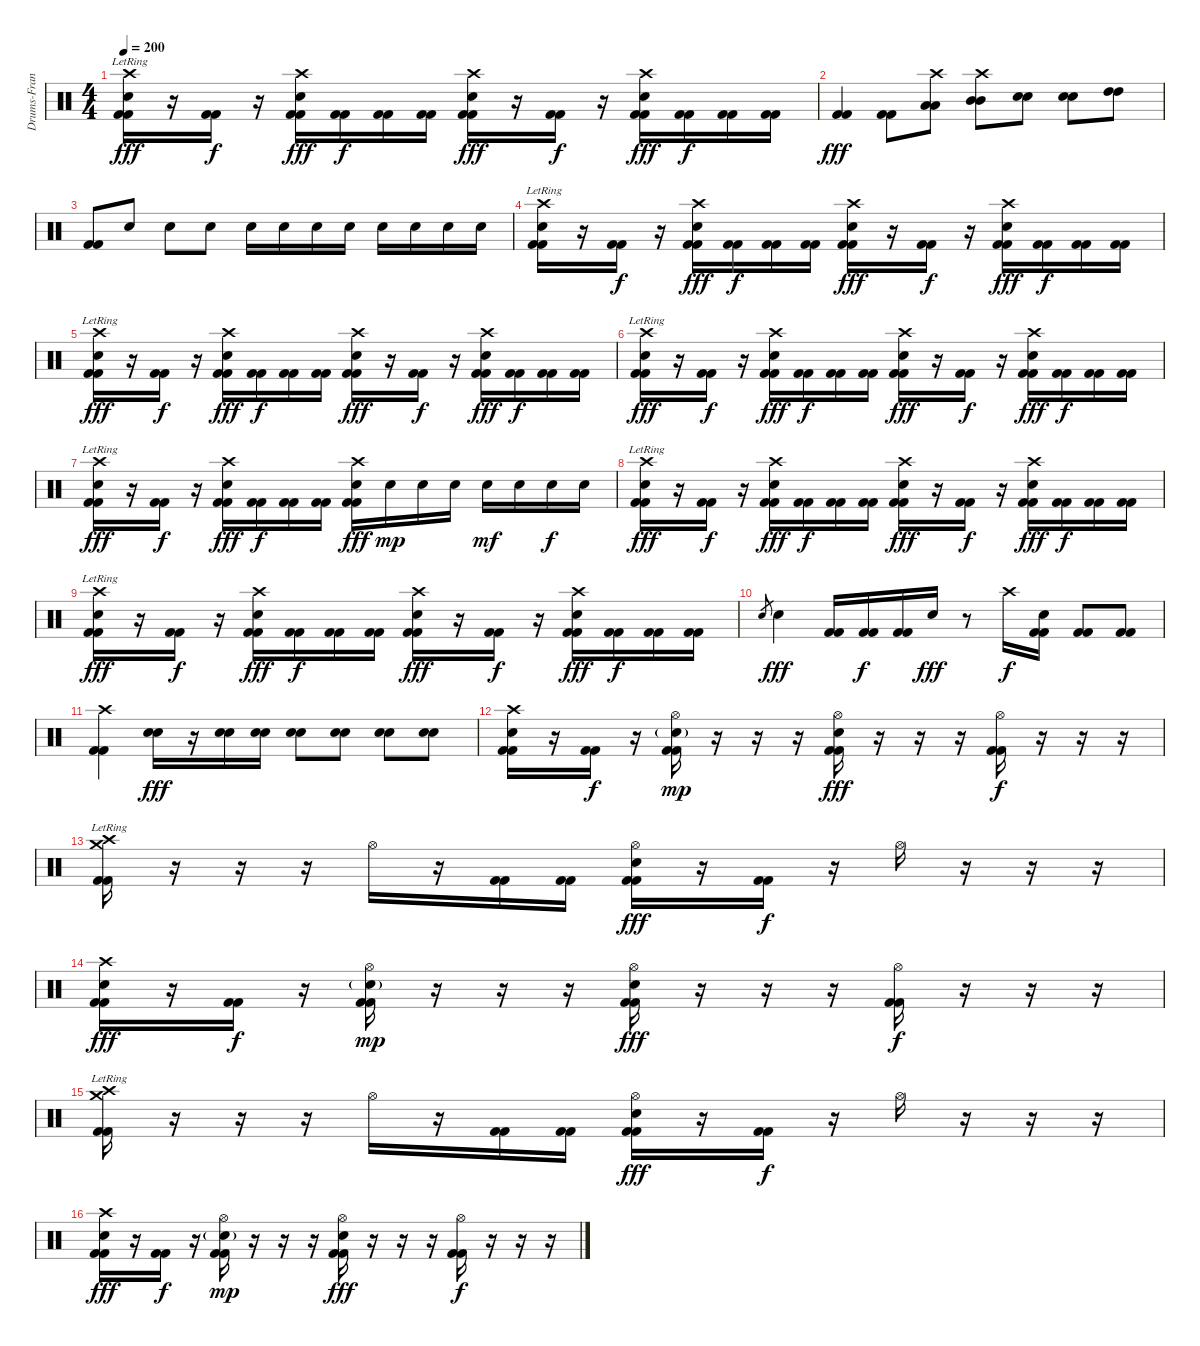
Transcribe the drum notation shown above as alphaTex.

\track ("Drums-Francis Mark" "Drums-Fran") {instrument percussion}
\staff {score}
\articulation defaults
\ts (4 4)
\tempo 200
\clef neutral
\ks c
("Crash high (hit)"{lr} "Electric Snare (hit)" "Kick (hit) 2" "Kick (hit) 2").16{dy fff} r.16 ("Kick (hit) 2" "Kick (hit) 2").16{dy f} r.16 ("Crash high (hit)" "Electric Snare (hit)" "Kick (hit) 2" "Kick (hit) 2").16{dy fff} ("Kick (hit) 2" "Kick (hit) 2").16{dy f} ("Kick (hit) 2" "Kick (hit) 2").16 ("Kick (hit) 2" "Kick (hit) 2").16 ("Crash high (hit)" "Electric Snare (hit)" "Kick (hit) 2" "Kick (hit) 2").16{dy fff} r.16 ("Kick (hit) 2" "Kick (hit) 2").16{dy f} r.16 ("Crash high (hit)" "Electric Snare (hit)" "Kick (hit) 2" "Kick (hit) 2").16{dy fff} ("Kick (hit) 2" "Kick (hit) 2").16{dy f} ("Kick (hit) 2" "Kick (hit) 2").16 ("Kick (hit) 2" "Kick (hit) 2").16 |
("Kick (hit) 2" "Kick (hit) 2").4{dy fff} ("Kick (hit) 2" "Kick (hit) 2").8 ("Crash high (hit)" "Low Tom (hit)" "Low Tom (hit)").8 ("Crash high (hit)" "Mid Tom (hit)" "Mid Tom (hit)").8 ("Electric Snare (hit)" "Electric Snare (hit)").8 ("Electric Snare (hit)" "Electric Snare (hit)").8 ("High Tom (hit)" "High Tom (hit)").8 |
("Kick (hit) 2" "Kick (hit) 2").8 "Electric Snare (hit)".8 "Electric Snare (hit)".8 "Electric Snare (hit)".8 "Electric Snare (hit)".16 "Electric Snare (hit)".16 "Electric Snare (hit)".16 "Electric Snare (hit)".16 "Electric Snare (hit)".16 "Electric Snare (hit)".16 "Electric Snare (hit)".16 "Electric Snare (hit)".16 |
("Crash high (hit)"{lr} "Electric Snare (hit)" "Kick (hit) 2" "Kick (hit) 2").16 r.16 ("Kick (hit) 2" "Kick (hit) 2").16{dy f} r.16 ("Crash high (hit)" "Electric Snare (hit)" "Kick (hit) 2" "Kick (hit) 2").16{dy fff} ("Kick (hit) 2" "Kick (hit) 2").16{dy f} ("Kick (hit) 2" "Kick (hit) 2").16 ("Kick (hit) 2" "Kick (hit) 2").16 ("Crash high (hit)" "Electric Snare (hit)" "Kick (hit) 2" "Kick (hit) 2").16{dy fff} r.16 ("Kick (hit) 2" "Kick (hit) 2").16{dy f} r.16 ("Crash high (hit)" "Electric Snare (hit)" "Kick (hit) 2" "Kick (hit) 2").16{dy fff} ("Kick (hit) 2" "Kick (hit) 2").16{dy f} ("Kick (hit) 2" "Kick (hit) 2").16 ("Kick (hit) 2" "Kick (hit) 2").16 |
("Crash high (hit)"{lr} "Electric Snare (hit)" "Kick (hit) 2" "Kick (hit) 2").16{dy fff} r.16 ("Kick (hit) 2" "Kick (hit) 2").16{dy f} r.16 ("Crash high (hit)" "Electric Snare (hit)" "Kick (hit) 2" "Kick (hit) 2").16{dy fff} ("Kick (hit) 2" "Kick (hit) 2").16{dy f} ("Kick (hit) 2" "Kick (hit) 2").16 ("Kick (hit) 2" "Kick (hit) 2").16 ("Crash high (hit)" "Electric Snare (hit)" "Kick (hit) 2" "Kick (hit) 2").16{dy fff} r.16 ("Kick (hit) 2" "Kick (hit) 2").16{dy f} r.16 ("Crash high (hit)" "Electric Snare (hit)" "Kick (hit) 2" "Kick (hit) 2").16{dy fff} ("Kick (hit) 2" "Kick (hit) 2").16{dy f} ("Kick (hit) 2" "Kick (hit) 2").16 ("Kick (hit) 2" "Kick (hit) 2").16 |
("Crash high (hit)"{lr} "Electric Snare (hit)" "Kick (hit) 2" "Kick (hit) 2").16{dy fff} r.16 ("Kick (hit) 2" "Kick (hit) 2").16{dy f} r.16 ("Crash high (hit)" "Electric Snare (hit)" "Kick (hit) 2" "Kick (hit) 2").16{dy fff} ("Kick (hit) 2" "Kick (hit) 2").16{dy f} ("Kick (hit) 2" "Kick (hit) 2").16 ("Kick (hit) 2" "Kick (hit) 2").16 ("Crash high (hit)" "Electric Snare (hit)" "Kick (hit) 2" "Kick (hit) 2").16{dy fff} r.16 ("Kick (hit) 2" "Kick (hit) 2").16{dy f} r.16 ("Crash high (hit)" "Electric Snare (hit)" "Kick (hit) 2" "Kick (hit) 2").16{dy fff} ("Kick (hit) 2" "Kick (hit) 2").16{dy f} ("Kick (hit) 2" "Kick (hit) 2").16 ("Kick (hit) 2" "Kick (hit) 2").16 |
("Crash high (hit)"{lr} "Electric Snare (hit)" "Kick (hit) 2" "Kick (hit) 2").16{dy fff} r.16 ("Kick (hit) 2" "Kick (hit) 2").16{dy f} r.16 ("Crash high (hit)" "Electric Snare (hit)" "Kick (hit) 2" "Kick (hit) 2").16{dy fff} ("Kick (hit) 2" "Kick (hit) 2").16{dy f} ("Kick (hit) 2" "Kick (hit) 2").16 ("Kick (hit) 2" "Kick (hit) 2").16 ("Crash high (hit)" "Electric Snare (hit)" "Kick (hit) 2" "Kick (hit) 2").16{dy fff} "Electric Snare (hit)".16{dy mp} "Electric Snare (hit)".16 "Electric Snare (hit)".16 "Electric Snare (hit)".16{dy mf} "Electric Snare (hit)".16 "Electric Snare (hit)".16{dy f} "Electric Snare (hit)".16 |
("Crash high (hit)"{lr} "Electric Snare (hit)" "Kick (hit) 2" "Kick (hit) 2").16{dy fff} r.16 ("Kick (hit) 2" "Kick (hit) 2").16{dy f} r.16 ("Crash high (hit)" "Electric Snare (hit)" "Kick (hit) 2" "Kick (hit) 2").16{dy fff} ("Kick (hit) 2" "Kick (hit) 2").16{dy f} ("Kick (hit) 2" "Kick (hit) 2").16 ("Kick (hit) 2" "Kick (hit) 2").16 ("Crash high (hit)" "Electric Snare (hit)" "Kick (hit) 2" "Kick (hit) 2").16{dy fff} r.16 ("Kick (hit) 2" "Kick (hit) 2").16{dy f} r.16 ("Crash high (hit)" "Electric Snare (hit)" "Kick (hit) 2" "Kick (hit) 2").16{dy fff} ("Kick (hit) 2" "Kick (hit) 2").16{dy f} ("Kick (hit) 2" "Kick (hit) 2").16 ("Kick (hit) 2" "Kick (hit) 2").16 |
("Crash high (hit)"{lr} "Electric Snare (hit)" "Kick (hit) 2" "Kick (hit) 2").16{dy fff} r.16 ("Kick (hit) 2" "Kick (hit) 2").16{dy f} r.16 ("Crash high (hit)" "Electric Snare (hit)" "Kick (hit) 2" "Kick (hit) 2").16{dy fff} ("Kick (hit) 2" "Kick (hit) 2").16{dy f} ("Kick (hit) 2" "Kick (hit) 2").16 ("Kick (hit) 2" "Kick (hit) 2").16 ("Crash high (hit)" "Electric Snare (hit)" "Kick (hit) 2" "Kick (hit) 2").16{dy fff} r.16 ("Kick (hit) 2" "Kick (hit) 2").16{dy f} r.16 ("Crash high (hit)" "Electric Snare (hit)" "Kick (hit) 2" "Kick (hit) 2").16{dy fff} ("Kick (hit) 2" "Kick (hit) 2").16{dy f} ("Kick (hit) 2" "Kick (hit) 2").16 ("Kick (hit) 2" "Kick (hit) 2").16 |
"Electric Snare (hit)".8{gr} "Electric Snare (hit)".4{dy fff} ("Kick (hit) 2" "Kick (hit) 2").16 ("Kick (hit) 2" "Kick (hit) 2").16{dy f} ("Kick (hit) 2" "Kick (hit) 2").16 "Electric Snare (hit)".16{dy fff} r.8 "Crash high (hit)".16{dy f} ("Electric Snare (hit)" "Kick (hit) 2" "Kick (hit) 2").16 ("Kick (hit) 2" "Kick (hit) 2").8 ("Kick (hit) 2" "Kick (hit) 2").8 |
("Crash high (hit)" "Kick (hit) 2" "Kick (hit) 2").4 ("Electric Snare (hit)" "Electric Snare (hit)").16{dy fff} r.16 ("Electric Snare (hit)" "Electric Snare (hit)").16 ("Electric Snare (hit)" "Electric Snare (hit)").16 ("Electric Snare (hit)" "Electric Snare (hit)").8 ("Electric Snare (hit)" "Electric Snare (hit)").8 ("Electric Snare (hit)" "Electric Snare (hit)").8 ("Electric Snare (hit)" "Electric Snare (hit)").8 |
("Crash high (hit)" "Electric Snare (hit)" "Kick (hit) 2" "Kick (hit) 2").16 r.16 ("Kick (hit) 2" "Kick (hit) 2").16{dy f} r.16 ("Hi-Hat (open)" "Electric Snare (hit)"{g} "Kick (hit) 2" "Kick (hit) 2").16{dy mp} r.16 r.16 r.16 ("Hi-Hat (open)" "Electric Snare (hit)" "Kick (hit) 2" "Kick (hit) 2").16{dy fff} r.16 r.16 r.16 ("Hi-Hat (open)" "Kick (hit) 2" "Kick (hit) 2").16{dy f} r.16 r.16 r.16 |
("Crash high (hit)"{lr} "Crash medium (hit)"{lr} "Kick (hit) 2" "Kick (hit) 2").16 r.16 r.16 r.16 "Hi-Hat (open)".16 r.16 ("Kick (hit) 2" "Kick (hit) 2").16 ("Kick (hit) 2" "Kick (hit) 2").16 ("Hi-Hat (open)" "Electric Snare (hit)" "Kick (hit) 2" "Kick (hit) 2").16{dy fff} r.16 ("Kick (hit) 2" "Kick (hit) 2").16{dy f} r.16 "Hi-Hat (open)".16 r.16 r.16 r.16 |
("Crash high (hit)" "Electric Snare (hit)" "Kick (hit) 2" "Kick (hit) 2").16{dy fff} r.16 ("Kick (hit) 2" "Kick (hit) 2").16{dy f} r.16 ("Hi-Hat (open)" "Electric Snare (hit)"{g} "Kick (hit) 2" "Kick (hit) 2").16{dy mp} r.16 r.16 r.16 ("Hi-Hat (open)" "Electric Snare (hit)" "Kick (hit) 2" "Kick (hit) 2").16{dy fff} r.16 r.16 r.16 ("Hi-Hat (open)" "Kick (hit) 2" "Kick (hit) 2").16{dy f} r.16 r.16 r.16 |
("Crash high (hit)"{lr} "Crash medium (hit)"{lr} "Kick (hit) 2" "Kick (hit) 2").16 r.16 r.16 r.16 "Hi-Hat (open)".16 r.16 ("Kick (hit) 2" "Kick (hit) 2").16 ("Kick (hit) 2" "Kick (hit) 2").16 ("Hi-Hat (open)" "Electric Snare (hit)" "Kick (hit) 2" "Kick (hit) 2").16{dy fff} r.16 ("Kick (hit) 2" "Kick (hit) 2").16{dy f} r.16 "Hi-Hat (open)".16 r.16 r.16 r.16 |
("Crash high (hit)" "Electric Snare (hit)" "Kick (hit) 2" "Kick (hit) 2").16{dy fff} r.16 ("Kick (hit) 2" "Kick (hit) 2").16{dy f} r.16 ("Hi-Hat (open)" "Electric Snare (hit)"{g} "Kick (hit) 2" "Kick (hit) 2").16{dy mp} r.16 r.16 r.16 ("Hi-Hat (open)" "Electric Snare (hit)" "Kick (hit) 2" "Kick (hit) 2").16{dy fff} r.16 r.16 r.16 ("Hi-Hat (open)" "Kick (hit) 2" "Kick (hit) 2").16{dy f} r.16 r.16 r.16
